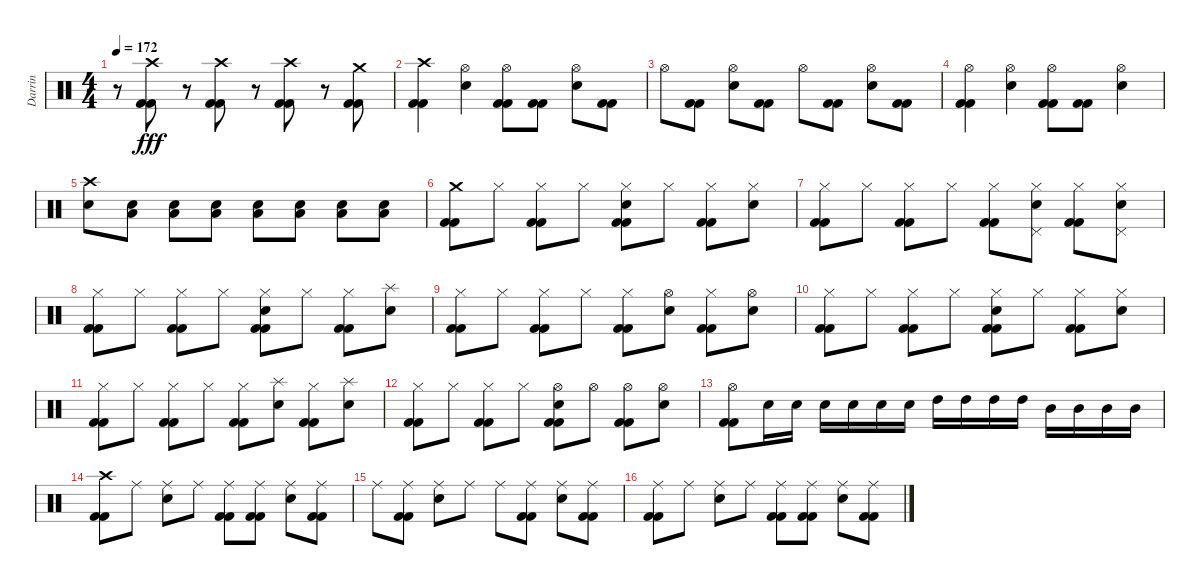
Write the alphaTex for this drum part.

\track ("Darrin" "Darrin") {instrument percussion}
\staff {score}
\articulation defaults
\ts (4 4)
\tempo 172
\clef neutral
\ks c
r.8{dy fff} ("Crash high (hit)" "Kick (hit) 2" "Kick (hit) 2").8 r.8 ("Crash high (hit)" "Kick (hit) 2" "Kick (hit) 2").8 r.8 ("Crash high (hit)" "Kick (hit) 2" "Kick (hit) 2").8 r.8 ("Crash medium (hit)" "Kick (hit) 2" "Kick (hit) 2").8 |
("Crash high (hit)" "Kick (hit) 2" "Kick (hit) 2").4 ("Hi-Hat (open)" "Snare (hit) 2").4 ("Hi-Hat (open)" "Kick (hit) 2" "Kick (hit) 2").8 ("Kick (hit) 2" "Kick (hit) 2").8 ("Hi-Hat (open)" "Snare (hit) 2").8 ("Kick (hit) 2" "Kick (hit) 2").8 |
"Hi-Hat (open)".8 ("Kick (hit) 2" "Kick (hit) 2").8 ("Hi-Hat (open)" "Snare (hit) 2").8 ("Kick (hit) 2" "Kick (hit) 2").8 "Hi-Hat (open)".8 ("Kick (hit) 2" "Kick (hit) 2").8 ("Hi-Hat (open)" "Snare (hit) 2").8 ("Kick (hit) 2" "Kick (hit) 2").8 |
("Hi-Hat (open)" "Kick (hit) 2" "Kick (hit) 2").4 ("Hi-Hat (open)" "Snare (hit) 2").4 ("Hi-Hat (open)" "Kick (hit) 2" "Kick (hit) 2").8 ("Kick (hit) 2" "Kick (hit) 2").8 ("Hi-Hat (open)" "Snare (hit) 2").4 |
("Crash high (hit)" "Snare (hit) 2").8 ("Low Floor Tom (hit)" "Snare (hit) 2").8 ("Low Floor Tom (hit)" "Snare (hit) 2").8 ("Low Floor Tom (hit)" "Snare (hit) 2").8 ("Low Floor Tom (hit)" "Snare (hit) 2").8 ("Low Floor Tom (hit)" "Snare (hit) 2").8 ("Low Floor Tom (hit)" "Snare (hit) 2").8 ("Low Floor Tom (hit)" "Snare (hit) 2").8 |
("Crash medium (hit)" "Kick (hit) 2" "Kick (hit) 2").8 "Hi-Hat (closed)".8 ("Hi-Hat (closed)" "Kick (hit) 2" "Kick (hit) 2").8 "Hi-Hat (closed)".8 ("Hi-Hat (closed)" "Snare (hit) 2" "Kick (hit) 2" "Kick (hit) 2").8 "Hi-Hat (closed)".8 ("Hi-Hat (closed)" "Kick (hit) 2" "Kick (hit) 2").8 ("Hi-Hat (closed)" "Snare (hit) 2").8 |
("Hi-Hat (closed)" "Kick (hit) 2" "Kick (hit) 2").8 "Hi-Hat (closed)".8 ("Hi-Hat (closed)" "Kick (hit) 2" "Kick (hit) 2").8 "Hi-Hat (closed)".8 ("Hi-Hat (closed)" "Kick (hit) 2" "Kick (hit) 2").8 ("Hi-Hat (closed)" "Pedal Hi-Hat (hit)" "Snare (hit) 2").8 ("Hi-Hat (closed)" "Kick (hit) 2" "Kick (hit) 2").8 ("Hi-Hat (closed)" "Pedal Hi-Hat (hit)" "Snare (hit) 2").8 |
("Hi-Hat (closed)" "Kick (hit) 2" "Kick (hit) 2").8 "Hi-Hat (closed)".8 ("Hi-Hat (closed)" "Kick (hit) 2" "Kick (hit) 2").8 "Hi-Hat (closed)".8 ("Hi-Hat (closed)" "Snare (hit) 2" "Kick (hit) 2" "Kick (hit) 2").8 "Hi-Hat (closed)".8 ("Hi-Hat (closed)" "Kick (hit) 2" "Kick (hit) 2").8 ("Splash (hit)" "Snare (hit) 2").8 |
("Hi-Hat (closed)" "Kick (hit) 2" "Kick (hit) 2").8 "Hi-Hat (closed)".8 ("Hi-Hat (closed)" "Kick (hit) 2" "Kick (hit) 2").8 "Hi-Hat (closed)".8 ("Hi-Hat (closed)" "Kick (hit) 2" "Kick (hit) 2").8 ("Hi-Hat (open)" "Snare (hit) 2").8 ("Hi-Hat (closed)" "Kick (hit) 2" "Kick (hit) 2").8 ("Hi-Hat (open)" "Snare (hit) 2").8 |
("Hi-Hat (closed)" "Kick (hit) 2" "Kick (hit) 2").8 "Hi-Hat (closed)".8 ("Hi-Hat (closed)" "Kick (hit) 2" "Kick (hit) 2").8 "Hi-Hat (closed)".8 ("Hi-Hat (closed)" "Snare (hit) 2" "Kick (hit) 2" "Kick (hit) 2").8 "Hi-Hat (closed)".8 ("Hi-Hat (closed)" "Kick (hit) 2" "Kick (hit) 2").8 ("Hi-Hat (closed)" "Snare (hit) 2").8 |
("Hi-Hat (closed)" "Kick (hit) 2" "Kick (hit) 2").8 "Hi-Hat (closed)".8 ("Hi-Hat (closed)" "Kick (hit) 2" "Kick (hit) 2").8 "Hi-Hat (closed)".8 ("Hi-Hat (closed)" "Kick (hit) 2" "Kick (hit) 2").8 ("Splash (hit)" "Snare (hit) 2").8 ("Hi-Hat (closed)" "Kick (hit) 2" "Kick (hit) 2").8 ("Splash (hit)" "Snare (hit) 2").8 |
("Hi-Hat (closed)" "Kick (hit) 2" "Kick (hit) 2").8 "Hi-Hat (closed)".8 ("Hi-Hat (closed)" "Kick (hit) 2" "Kick (hit) 2").8 "Hi-Hat (closed)".8 ("Hi-Hat (open)" "Snare (hit) 2" "Kick (hit) 2" "Kick (hit) 2").8 "Hi-Hat (open)".8 ("Hi-Hat (open)" "Kick (hit) 2" "Kick (hit) 2").8 ("Hi-Hat (open)" "Snare (hit) 2").8 |
("Hi-Hat (open)" "Kick (hit) 2" "Kick (hit) 2").8 "Snare (hit) 2".16 "Snare (hit) 2".16 "Snare (hit) 2".16 "Snare (hit) 2".16 "Snare (hit) 2".16 "Snare (hit) 2".16 "High Tom (hit)".16 "High Tom (hit)".16 "High Tom (hit)".16 "High Tom (hit)".16 "Mid Tom (hit)".16 "Mid Tom (hit)".16 "Mid Tom (hit)".16 "Mid Tom (hit)".16 |
("Crash high (hit)" "Kick (hit) 2" "Kick (hit) 2").8 "Ride (middle)".8 ("Ride (middle)" "Snare (hit) 2").8 "Ride (middle)".8 ("Ride (middle)" "Kick (hit) 2" "Kick (hit) 2").8 ("Ride (middle)" "Kick (hit) 2" "Kick (hit) 2").8 ("Ride (middle)" "Snare (hit) 2").8 ("Ride (middle)" "Kick (hit) 2" "Kick (hit) 2").8 |
"Ride (middle)".8 ("Ride (middle)" "Kick (hit) 2" "Kick (hit) 2").8 ("Ride (middle)" "Snare (hit) 2").8 "Ride (middle)".8 "Ride (middle)".8 ("Ride (middle)" "Kick (hit) 2" "Kick (hit) 2").8 ("Ride (middle)" "Snare (hit) 2").8 ("Ride (middle)" "Kick (hit) 2" "Kick (hit) 2").8 |
("Ride (middle)" "Kick (hit) 2" "Kick (hit) 2").8 "Ride (middle)".8 ("Ride (middle)" "Snare (hit) 2").8 "Ride (middle)".8 ("Ride (middle)" "Kick (hit) 2" "Kick (hit) 2").8 ("Ride (middle)" "Kick (hit) 2" "Kick (hit) 2").8 ("Ride (middle)" "Snare (hit) 2").8 ("Ride (middle)" "Kick (hit) 2" "Kick (hit) 2").8
